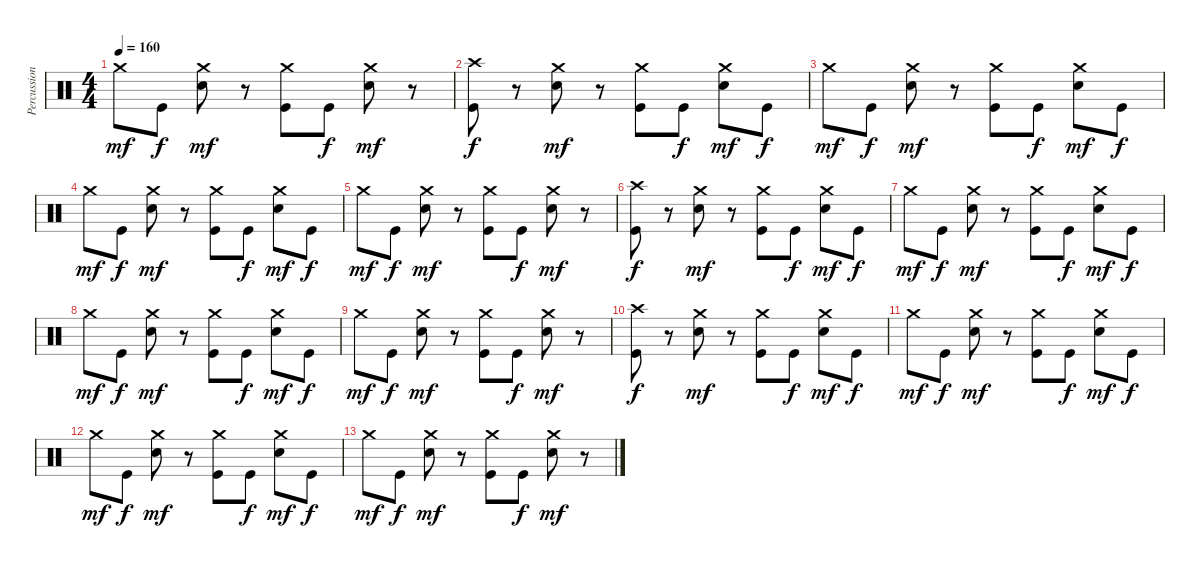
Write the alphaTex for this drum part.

\track ("Percussion" "Percussion") {instrument percussion}
\staff {score}
\articulation defaults
\ts (4 4)
\tempo 160
\clef neutral
\ks c "Crash medium (hit)".8{dy mf} "Kick (hit)".8{dy f}
("Electric Snare (hit)" "Crash medium (hit)").8{dy mf} r.8 ("Kick (hit)" "Crash medium (hit)").8 "Kick (hit)".8{dy f} ("Electric Snare (hit)" "Crash medium (hit)").8{dy mf} r.8 |
("Kick (hit)" "Crash high (hit)").8{dy f} r.8 ("Electric Snare (hit)" "Crash medium (hit)").8{dy mf} r.8 ("Kick (hit)" "Crash medium (hit)").8 "Kick (hit)".8{dy f} ("Electric Snare (hit)" "Crash medium (hit)").8{dy mf} "Kick (hit)".8{dy f} |
"Crash medium (hit)".8{dy mf} "Kick (hit)".8{dy f} ("Electric Snare (hit)" "Crash medium (hit)").8{dy mf} r.8 ("Kick (hit)" "Crash medium (hit)").8 "Kick (hit)".8{dy f} ("Electric Snare (hit)" "Crash medium (hit)").8{dy mf} "Kick (hit)".8{dy f} |
"Crash medium (hit)".8{dy mf} "Kick (hit)".8{dy f} ("Electric Snare (hit)" "Crash medium (hit)").8{dy mf} r.8 ("Kick (hit)" "Crash medium (hit)").8 "Kick (hit)".8{dy f} ("Electric Snare (hit)" "Crash medium (hit)").8{dy mf} "Kick (hit)".8{dy f} |
"Crash medium (hit)".8{dy mf} "Kick (hit)".8{dy f} ("Electric Snare (hit)" "Crash medium (hit)").8{dy mf} r.8 ("Kick (hit)" "Crash medium (hit)").8 "Kick (hit)".8{dy f} ("Electric Snare (hit)" "Crash medium (hit)").8{dy mf} r.8 |
("Kick (hit)" "Crash high (hit)").8{dy f volume 12} r.8 ("Electric Snare (hit)" "Crash medium (hit)").8{dy mf} r.8 ("Kick (hit)" "Crash medium (hit)").8 "Kick (hit)".8{dy f} ("Electric Snare (hit)" "Crash medium (hit)").8{dy mf} "Kick (hit)".8{dy f} |
"Crash medium (hit)".8{dy mf} "Kick (hit)".8{dy f} ("Electric Snare (hit)" "Crash medium (hit)").8{dy mf} r.8 ("Kick (hit)" "Crash medium (hit)").8 "Kick (hit)".8{dy f} ("Electric Snare (hit)" "Crash medium (hit)").8{dy mf} "Kick (hit)".8{dy f} |
"Crash medium (hit)".8{dy mf volume 9} "Kick (hit)".8{dy f} ("Electric Snare (hit)" "Crash medium (hit)").8{dy mf} r.8 ("Kick (hit)" "Crash medium (hit)").8 "Kick (hit)".8{dy f} ("Electric Snare (hit)" "Crash medium (hit)").8{dy mf} "Kick (hit)".8{dy f} |
"Crash medium (hit)".8{dy mf} "Kick (hit)".8{dy f} ("Electric Snare (hit)" "Crash medium (hit)").8{dy mf} r.8 ("Kick (hit)" "Crash medium (hit)").8 "Kick (hit)".8{dy f} ("Electric Snare (hit)" "Crash medium (hit)").8{dy mf} r.8 |
("Kick (hit)" "Crash high (hit)").8{dy f volume 5} r.8 ("Electric Snare (hit)" "Crash medium (hit)").8{dy mf} r.8 ("Kick (hit)" "Crash medium (hit)").8 "Kick (hit)".8{dy f} ("Electric Snare (hit)" "Crash medium (hit)").8{dy mf} "Kick (hit)".8{dy f} |
"Crash medium (hit)".8{dy mf} "Kick (hit)".8{dy f} ("Electric Snare (hit)" "Crash medium (hit)").8{dy mf} r.8 ("Kick (hit)" "Crash medium (hit)").8 "Kick (hit)".8{dy f} ("Electric Snare (hit)" "Crash medium (hit)").8{dy mf} "Kick (hit)".8{dy f} |
"Crash medium (hit)".8{dy mf volume 0} "Kick (hit)".8{dy f} ("Electric Snare (hit)" "Crash medium (hit)").8{dy mf} r.8 ("Kick (hit)" "Crash medium (hit)").8 "Kick (hit)".8{dy f} ("Electric Snare (hit)" "Crash medium (hit)").8{dy mf} "Kick (hit)".8{dy f} |
"Crash medium (hit)".8{dy mf} "Kick (hit)".8{dy f} ("Electric Snare (hit)" "Crash medium (hit)").8{dy mf} r.8 ("Kick (hit)" "Crash medium (hit)").8 "Kick (hit)".8{dy f} ("Electric Snare (hit)" "Crash medium (hit)").8{dy mf} r.8
